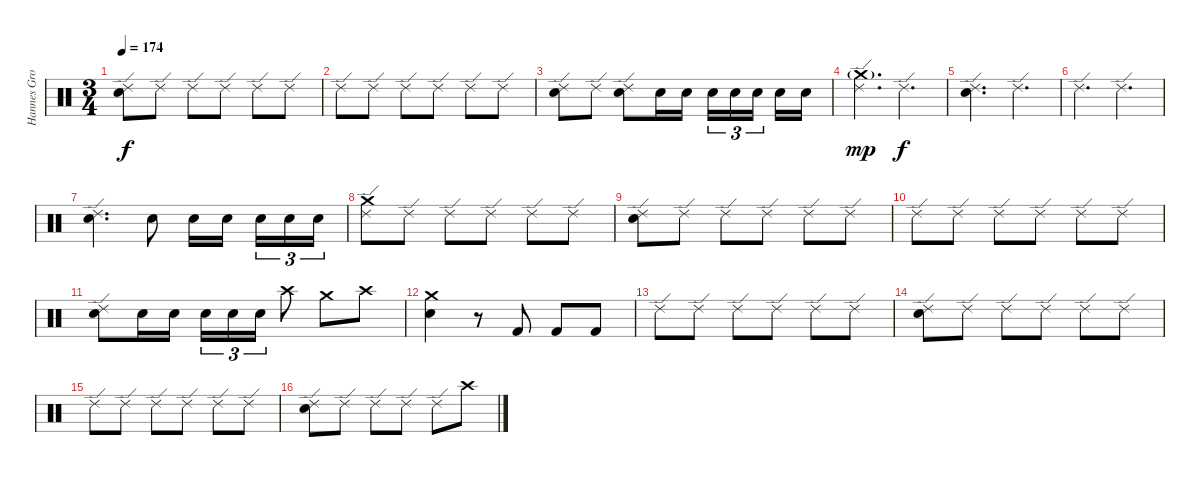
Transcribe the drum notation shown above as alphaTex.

\track ("Hannes Grossmann" "Hannes Gro") {instrument percussion}
\staff {score}
\articulation defaults
\ts (3 4)
\tempo 174
\clef neutral
\ks c
("Ride (edge) 2" "Electric Snare (hit)").8{dy f} "Ride (edge) 2".8 "Ride (edge) 2".8 "Ride (edge) 2".8 "Ride (edge) 2".8 "Ride (edge) 2".8 |
"Ride (edge) 2".8 "Ride (edge) 2".8 "Ride (edge) 2".8 "Ride (edge) 2".8 "Ride (edge) 2".8 "Ride (edge) 2".8 |
("Ride (edge) 2" "Electric Snare (hit)").8 "Ride (edge) 2".8 ("Ride (edge) 2" "Electric Snare (hit)").8 "Electric Snare (hit)".16 "Electric Snare (hit)".16 "Electric Snare (hit)".16{tu (3 2)} "Electric Snare (hit)".16{tu (3 2)} "Electric Snare (hit)".16{tu (3 2) beam splitsecondary} "Electric Snare (hit)".16 "Electric Snare (hit)".16 |
("Ride (edge) 2" "Crash medium (hit)"{g}).4{d dy mp} "Ride (edge) 2".4{d dy f} |
("Ride (edge) 2" "Electric Snare (hit)").4{d} "Ride (edge) 2".4{d} |
"Ride (edge) 2".4{d} "Ride (edge) 2".4{d} |
("Ride (edge) 2" "Electric Snare (hit)").4{d} "Electric Snare (hit)".8 "Electric Snare (hit)".16 "Electric Snare (hit)".16{beam splitsecondary} "Electric Snare (hit)".16{tu (3 2)} "Electric Snare (hit)".16{tu (3 2)} "Electric Snare (hit)".16{tu (3 2)} |
("Ride (edge) 2" "Crash medium (hit)").8 "Ride (edge) 2".8 "Ride (edge) 2".8 "Ride (edge) 2".8 "Ride (edge) 2".8 "Ride (edge) 2".8 |
("Ride (edge) 2" "Electric Snare (hit)").8 "Ride (edge) 2".8 "Ride (edge) 2".8 "Ride (edge) 2".8 "Ride (edge) 2".8 "Ride (edge) 2".8 |
"Ride (edge) 2".8 "Ride (edge) 2".8 "Ride (edge) 2".8 "Ride (edge) 2".8 "Ride (edge) 2".8 "Ride (edge) 2".8 |
("Ride (edge) 2" "Electric Snare (hit)").8 "Electric Snare (hit)".16 "Electric Snare (hit)".16 "Electric Snare (hit)".16{tu (3 2)} "Electric Snare (hit)".16{tu (3 2)} "Electric Snare (hit)".16{tu (3 2)} "Crash high (hit)".8 "Crash medium (hit)".8 "Crash high (hit)".8 |
("Crash medium (hit)" "Electric Snare (hit)").4 r.8 "Kick (hit) 2".8 "Kick (hit) 2".8 "Kick (hit) 2".8 |
"Ride (edge) 2".8 "Ride (edge) 2".8 "Ride (edge) 2".8 "Ride (edge) 2".8 "Ride (edge) 2".8 "Ride (edge) 2".8 |
("Ride (edge) 2" "Electric Snare (hit)").8 "Ride (edge) 2".8 "Ride (edge) 2".8 "Ride (edge) 2".8 "Ride (edge) 2".8 "Ride (edge) 2".8 |
"Ride (edge) 2".8 "Ride (edge) 2".8 "Ride (edge) 2".8 "Ride (edge) 2".8 "Ride (edge) 2".8 "Ride (edge) 2".8 |
("Ride (edge) 2" "Electric Snare (hit)").8 "Ride (edge) 2".8 "Ride (edge) 2".8 "Ride (edge) 2".8 "Ride (edge) 2".8 "Crash high (hit)".8
